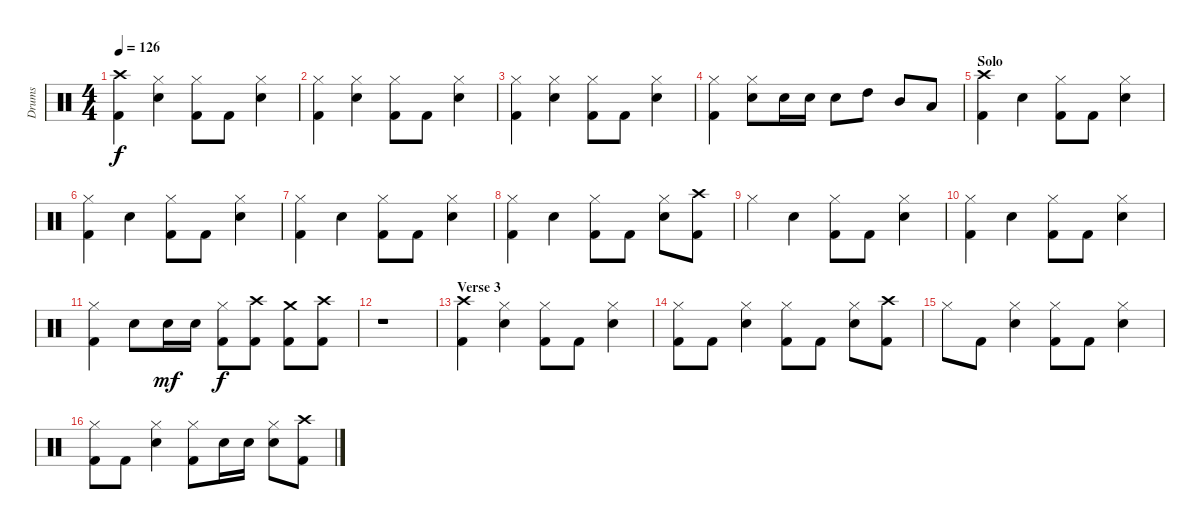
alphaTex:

\track ("Drums" "Drums") {instrument percussion}
\staff {score}
\articulation defaults
\ts (4 4)
\tempo 126
\clef neutral
\ks c
("Crash high (hit)" "Kick (hit) 2").4{dy f} ("Hi-Hat (closed)" "Snare (hit) 2").4 ("Hi-Hat (closed)" "Kick (hit) 2").8 "Kick (hit) 2".8 ("Hi-Hat (closed)" "Snare (hit) 2").4 |
("Hi-Hat (closed)" "Kick (hit) 2").4 ("Hi-Hat (closed)" "Snare (hit) 2").4 ("Hi-Hat (closed)" "Kick (hit) 2").8 "Kick (hit) 2".8 ("Hi-Hat (closed)" "Snare (hit) 2").4 |
("Hi-Hat (closed)" "Kick (hit) 2").4 ("Hi-Hat (closed)" "Snare (hit) 2").4 ("Hi-Hat (closed)" "Kick (hit) 2").8 "Kick (hit) 2".8 ("Hi-Hat (closed)" "Snare (hit) 2").4 |
("Hi-Hat (closed)" "Kick (hit) 2").4 ("Hi-Hat (closed)" "Snare (hit) 2").8 "Snare (hit) 2".16 "Snare (hit) 2".16 "Snare (hit) 2".8 "High Tom (hit)".8 "Mid Tom (hit)".8 "Low Tom (hit)".8 |
\section ("" "Solo")
("Crash high (hit)" "Kick (hit) 2").4 "Snare (hit) 2".4 ("Hi-Hat (closed)" "Kick (hit) 2").8 "Kick (hit) 2".8 ("Hi-Hat (closed)" "Snare (hit) 2").4 |
("Hi-Hat (closed)" "Kick (hit) 2").4 "Snare (hit) 2".4 ("Hi-Hat (closed)" "Kick (hit) 2").8 "Kick (hit) 2".8 ("Hi-Hat (closed)" "Snare (hit) 2").4 |
("Hi-Hat (closed)" "Kick (hit) 2").4 "Snare (hit) 2".4 ("Hi-Hat (closed)" "Kick (hit) 2").8 "Kick (hit) 2".8 ("Hi-Hat (closed)" "Snare (hit) 2").4 |
("Hi-Hat (closed)" "Kick (hit) 2").4 "Snare (hit) 2".4 ("Hi-Hat (closed)" "Kick (hit) 2").8 "Kick (hit) 2".8 ("Hi-Hat (closed)" "Snare (hit) 2").8 ("Crash high (hit)" "Kick (hit) 2").8 |
"Hi-Hat (closed)".4 "Snare (hit) 2".4 ("Hi-Hat (closed)" "Kick (hit) 2").8 "Kick (hit) 2".8 ("Hi-Hat (closed)" "Snare (hit) 2").4 |
("Hi-Hat (closed)" "Kick (hit) 2").4 "Snare (hit) 2".4 ("Hi-Hat (closed)" "Kick (hit) 2").8 "Kick (hit) 2".8 ("Hi-Hat (closed)" "Snare (hit) 2").4 |
("Hi-Hat (closed)" "Kick (hit) 2").4 "Snare (hit) 2".8 "Snare (hit) 2".16{dy mf} "Snare (hit) 2".16 ("Hi-Hat (closed)" "Kick (hit) 2").8{dy f} ("Crash high (hit)" "Kick (hit) 2").8 ("Crash medium (hit)" "Kick (hit) 2").8 ("Crash high (hit)" "Kick (hit) 2").8 |
r.1 |
\section ("" "Verse 3")
("Crash high (hit)" "Kick (hit) 2").4 ("Hi-Hat (closed)" "Snare (hit) 2").4 ("Hi-Hat (closed)" "Kick (hit) 2").8 "Kick (hit) 2".8 ("Hi-Hat (closed)" "Snare (hit) 2").4 |
("Hi-Hat (closed)" "Kick (hit) 2").8 "Kick (hit) 2".8 ("Hi-Hat (closed)" "Snare (hit) 2").4 ("Hi-Hat (closed)" "Kick (hit) 2").8 "Kick (hit) 2".8 ("Hi-Hat (closed)" "Snare (hit) 2").8 ("Crash high (hit)" "Kick (hit) 2").8 |
"Hi-Hat (closed)".8 "Kick (hit) 2".8 ("Hi-Hat (closed)" "Snare (hit) 2").4 ("Hi-Hat (closed)" "Kick (hit) 2").8 "Kick (hit) 2".8 ("Hi-Hat (closed)" "Snare (hit) 2").4 |
("Hi-Hat (closed)" "Kick (hit) 2").8 "Kick (hit) 2".8 ("Hi-Hat (closed)" "Snare (hit) 2").4 ("Hi-Hat (closed)" "Kick (hit) 2").8 "Snare (hit) 2".16 "Snare (hit) 2".16 ("Hi-Hat (closed)" "Snare (hit) 2").8 ("Crash high (hit)" "Kick (hit) 2").8
